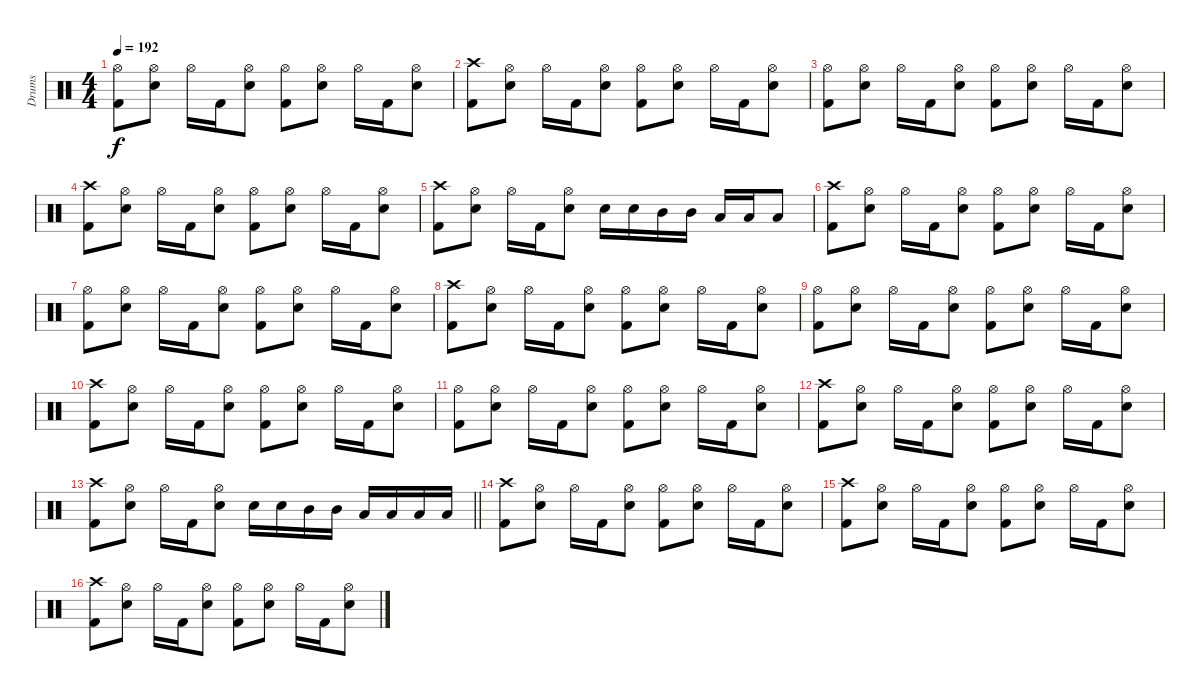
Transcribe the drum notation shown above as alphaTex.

\track ("Drums" "Drums") {instrument percussion}
\staff {score}
\articulation defaults
\ts (4 4)
\tempo 192
\clef neutral
\ks c
("Hi-Hat (open)" "Kick (hit) 2").8{dy f} ("Hi-Hat (open)" "Snare (hit) 2").8 "Hi-Hat (open)".16 "Kick (hit) 2".16 ("Hi-Hat (open)" "Snare (hit) 2").8 ("Hi-Hat (open)" "Kick (hit) 2").8 ("Hi-Hat (open)" "Snare (hit) 2").8 "Hi-Hat (open)".16 "Kick (hit) 2".16 ("Hi-Hat (open)" "Snare (hit) 2").8 |
("Crash high (hit)" "Kick (hit) 2").8 ("Hi-Hat (open)" "Snare (hit) 2").8 "Hi-Hat (open)".16 "Kick (hit) 2".16 ("Hi-Hat (open)" "Snare (hit) 2").8 ("Hi-Hat (open)" "Kick (hit) 2").8 ("Hi-Hat (open)" "Snare (hit) 2").8 "Hi-Hat (open)".16 "Kick (hit) 2".16 ("Hi-Hat (open)" "Snare (hit) 2").8 |
("Hi-Hat (open)" "Kick (hit) 2").8 ("Hi-Hat (open)" "Snare (hit) 2").8 "Hi-Hat (open)".16 "Kick (hit) 2".16 ("Hi-Hat (open)" "Snare (hit) 2").8 ("Hi-Hat (open)" "Kick (hit) 2").8 ("Hi-Hat (open)" "Snare (hit) 2").8 "Hi-Hat (open)".16 "Kick (hit) 2".16 ("Hi-Hat (open)" "Snare (hit) 2").8 |
("Crash high (hit)" "Kick (hit) 2").8 ("Hi-Hat (open)" "Snare (hit) 2").8 "Hi-Hat (open)".16 "Kick (hit) 2".16 ("Hi-Hat (open)" "Snare (hit) 2").8 ("Hi-Hat (open)" "Kick (hit) 2").8 ("Hi-Hat (open)" "Snare (hit) 2").8 "Hi-Hat (open)".16 "Kick (hit) 2".16 ("Hi-Hat (open)" "Snare (hit) 2").8 |
("Crash high (hit)" "Kick (hit) 2").8 ("Hi-Hat (open)" "Snare (hit) 2").8 "Hi-Hat (open)".16 "Kick (hit) 2".16 ("Hi-Hat (open)" "Snare (hit) 2").8 "Snare (hit) 2".16 "Snare (hit) 2".16 "Mid Tom (hit)".16 "Mid Tom (hit)".16 "Low Floor Tom (hit)".16 "Low Floor Tom (hit)".16 "Low Floor Tom (hit)".8 |
("Crash high (hit)" "Kick (hit) 2").8 ("Hi-Hat (open)" "Snare (hit) 2").8 "Hi-Hat (open)".16 "Kick (hit) 2".16 ("Hi-Hat (open)" "Snare (hit) 2").8 ("Hi-Hat (open)" "Kick (hit) 2").8 ("Hi-Hat (open)" "Snare (hit) 2").8 "Hi-Hat (open)".16 "Kick (hit) 2".16 ("Hi-Hat (open)" "Snare (hit) 2").8 |
("Hi-Hat (open)" "Kick (hit) 2").8 ("Hi-Hat (open)" "Snare (hit) 2").8 "Hi-Hat (open)".16 "Kick (hit) 2".16 ("Hi-Hat (open)" "Snare (hit) 2").8 ("Hi-Hat (open)" "Kick (hit) 2").8 ("Hi-Hat (open)" "Snare (hit) 2").8 "Hi-Hat (open)".16 "Kick (hit) 2".16 ("Hi-Hat (open)" "Snare (hit) 2").8 |
("Crash high (hit)" "Kick (hit) 2").8 ("Hi-Hat (open)" "Snare (hit) 2").8 "Hi-Hat (open)".16 "Kick (hit) 2".16 ("Hi-Hat (open)" "Snare (hit) 2").8 ("Hi-Hat (open)" "Kick (hit) 2").8 ("Hi-Hat (open)" "Snare (hit) 2").8 "Hi-Hat (open)".16 "Kick (hit) 2".16 ("Hi-Hat (open)" "Snare (hit) 2").8 |
("Hi-Hat (open)" "Kick (hit) 2").8 ("Hi-Hat (open)" "Snare (hit) 2").8 "Hi-Hat (open)".16 "Kick (hit) 2".16 ("Hi-Hat (open)" "Snare (hit) 2").8 ("Hi-Hat (open)" "Kick (hit) 2").8 ("Hi-Hat (open)" "Snare (hit) 2").8 "Hi-Hat (open)".16 "Kick (hit) 2".16 ("Hi-Hat (open)" "Snare (hit) 2").8 |
("Crash high (hit)" "Kick (hit) 2").8 ("Hi-Hat (open)" "Snare (hit) 2").8 "Hi-Hat (open)".16 "Kick (hit) 2".16 ("Hi-Hat (open)" "Snare (hit) 2").8 ("Hi-Hat (open)" "Kick (hit) 2").8 ("Hi-Hat (open)" "Snare (hit) 2").8 "Hi-Hat (open)".16 "Kick (hit) 2".16 ("Hi-Hat (open)" "Snare (hit) 2").8 |
("Hi-Hat (open)" "Kick (hit) 2").8 ("Hi-Hat (open)" "Snare (hit) 2").8 "Hi-Hat (open)".16 "Kick (hit) 2".16 ("Hi-Hat (open)" "Snare (hit) 2").8 ("Hi-Hat (open)" "Kick (hit) 2").8 ("Hi-Hat (open)" "Snare (hit) 2").8 "Hi-Hat (open)".16 "Kick (hit) 2".16 ("Hi-Hat (open)" "Snare (hit) 2").8 |
("Crash high (hit)" "Kick (hit) 2").8 ("Hi-Hat (open)" "Snare (hit) 2").8 "Hi-Hat (open)".16 "Kick (hit) 2".16 ("Hi-Hat (open)" "Snare (hit) 2").8 ("Hi-Hat (open)" "Kick (hit) 2").8 ("Hi-Hat (open)" "Snare (hit) 2").8 "Hi-Hat (open)".16 "Kick (hit) 2".16 ("Hi-Hat (open)" "Snare (hit) 2").8 |
\barLineRight lightlight
("Crash high (hit)" "Kick (hit) 2").8 ("Hi-Hat (open)" "Snare (hit) 2").8 "Hi-Hat (open)".16 "Kick (hit) 2".16 ("Hi-Hat (open)" "Snare (hit) 2").8 "Snare (hit) 2".16 "Snare (hit) 2".16 "Mid Tom (hit)".16 "Mid Tom (hit)".16 "Low Floor Tom (hit)".16 "Low Floor Tom (hit)".16 "Low Floor Tom (hit)".16 "Low Floor Tom (hit)".16 |
("Crash high (hit)" "Kick (hit) 2").8 ("Hi-Hat (open)" "Snare (hit) 2").8 "Hi-Hat (open)".16 "Kick (hit) 2".16 ("Hi-Hat (open)" "Snare (hit) 2").8 ("Hi-Hat (open)" "Kick (hit) 2").8 ("Hi-Hat (open)" "Snare (hit) 2").8 "Hi-Hat (open)".16 "Kick (hit) 2".16 ("Hi-Hat (open)" "Snare (hit) 2").8 |
("Crash high (hit)" "Kick (hit) 2").8 ("Hi-Hat (open)" "Snare (hit) 2").8 "Hi-Hat (open)".16 "Kick (hit) 2".16 ("Hi-Hat (open)" "Snare (hit) 2").8 ("Hi-Hat (open)" "Kick (hit) 2").8 ("Hi-Hat (open)" "Snare (hit) 2").8 "Hi-Hat (open)".16 "Kick (hit) 2".16 ("Hi-Hat (open)" "Snare (hit) 2").8 |
("Crash high (hit)" "Kick (hit) 2").8 ("Hi-Hat (open)" "Snare (hit) 2").8 "Hi-Hat (open)".16 "Kick (hit) 2".16 ("Hi-Hat (open)" "Snare (hit) 2").8 ("Hi-Hat (open)" "Kick (hit) 2").8 ("Hi-Hat (open)" "Snare (hit) 2").8 "Hi-Hat (open)".16 "Kick (hit) 2".16 ("Hi-Hat (open)" "Snare (hit) 2").8
